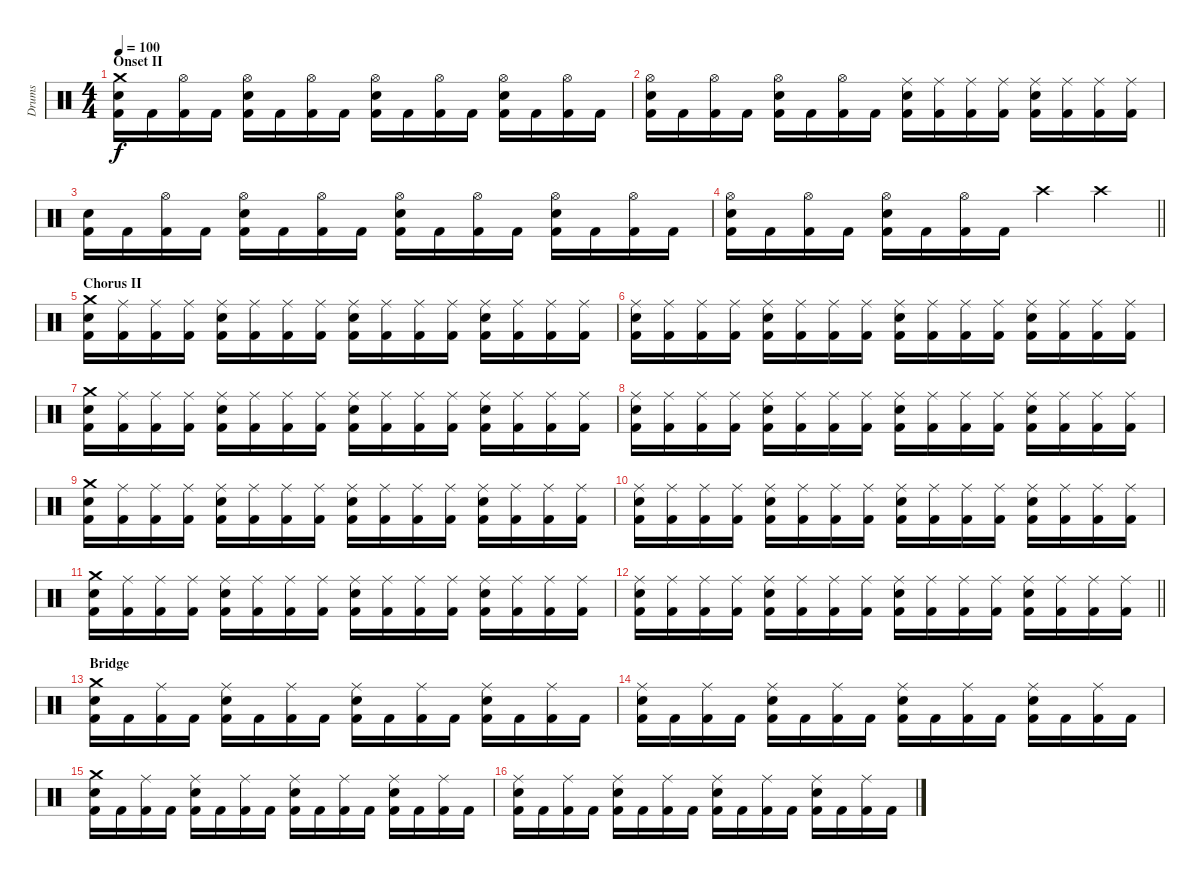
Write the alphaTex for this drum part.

\track ("Drums" "Drums") {instrument percussion}
\staff {score}
\articulation defaults
\ts (4 4)
\section ("" "Onset II")
\tempo 100
\clef neutral
\ks c
("Crash medium (hit)" "Snare (hit) 2" "Kick (hit) 2").16{dy f} "Kick (hit) 2".16 ("Hi-Hat (open)" "Kick (hit) 2").16 "Kick (hit) 2".16 ("Hi-Hat (open)" "Snare (hit) 2" "Kick (hit) 2").16 "Kick (hit) 2".16 ("Hi-Hat (open)" "Kick (hit) 2").16 "Kick (hit) 2".16 ("Hi-Hat (open)" "Snare (hit) 2" "Kick (hit) 2").16 "Kick (hit) 2".16 ("Hi-Hat (open)" "Kick (hit) 2").16 "Kick (hit) 2".16 ("Hi-Hat (open)" "Snare (hit) 2" "Kick (hit) 2").16 "Kick (hit) 2".16 ("Hi-Hat (open)" "Kick (hit) 2").16 "Kick (hit) 2".16 |
("Hi-Hat (open)" "Snare (hit) 2" "Kick (hit) 2").16 "Kick (hit) 2".16 ("Hi-Hat (open)" "Kick (hit) 2").16 "Kick (hit) 2".16 ("Hi-Hat (open)" "Snare (hit) 2" "Kick (hit) 2").16 "Kick (hit) 2".16 ("Hi-Hat (open)" "Kick (hit) 2").16 "Kick (hit) 2".16 ("Ride (middle)" "Snare (hit) 2" "Kick (hit) 2").16 ("Ride (middle)" "Kick (hit) 2").16 ("Ride (middle)" "Kick (hit) 2").16 ("Ride (middle)" "Kick (hit) 2").16 ("Ride (middle)" "Snare (hit) 2" "Kick (hit) 2").16 ("Ride (middle)" "Kick (hit) 2").16 ("Ride (middle)" "Kick (hit) 2").16 ("Ride (middle)" "Kick (hit) 2").16 |
("Snare (hit) 2" "Kick (hit) 2").16 "Kick (hit) 2".16 ("Hi-Hat (open)" "Kick (hit) 2").16 "Kick (hit) 2".16 ("Hi-Hat (open)" "Snare (hit) 2" "Kick (hit) 2").16 "Kick (hit) 2".16 ("Hi-Hat (open)" "Kick (hit) 2").16 "Kick (hit) 2".16 ("Hi-Hat (open)" "Snare (hit) 2" "Kick (hit) 2").16 "Kick (hit) 2".16 ("Hi-Hat (open)" "Kick (hit) 2").16 "Kick (hit) 2".16 ("Hi-Hat (open)" "Snare (hit) 2" "Kick (hit) 2").16 "Kick (hit) 2".16 ("Hi-Hat (open)" "Kick (hit) 2").16 "Kick (hit) 2".16 |
\barLineRight lightlight
("Hi-Hat (open)" "Snare (hit) 2" "Kick (hit) 2").16 "Kick (hit) 2".16 ("Hi-Hat (open)" "Kick (hit) 2").16 "Kick (hit) 2".16 ("Hi-Hat (open)" "Snare (hit) 2" "Kick (hit) 2").16 "Kick (hit) 2".16 ("Hi-Hat (open)" "Kick (hit) 2").16 "Kick (hit) 2".16 "Crash high (hit)".4 "Crash high (hit)".4 |
\section ("" "Chorus II")
("Crash medium (hit)" "Snare (hit) 2" "Kick (hit) 2").16 ("Ride (middle)" "Kick (hit) 2").16 ("Ride (middle)" "Kick (hit) 2").16 ("Ride (middle)" "Kick (hit) 2").16 ("Ride (middle)" "Snare (hit) 2" "Kick (hit) 2").16 ("Ride (middle)" "Kick (hit) 2").16 ("Ride (middle)" "Kick (hit) 2").16 ("Ride (middle)" "Kick (hit) 2").16 ("Ride (middle)" "Snare (hit) 2" "Kick (hit) 2").16 ("Ride (middle)" "Kick (hit) 2").16 ("Ride (middle)" "Kick (hit) 2").16 ("Ride (middle)" "Kick (hit) 2").16 ("Ride (middle)" "Snare (hit) 2" "Kick (hit) 2").16 ("Ride (middle)" "Kick (hit) 2").16 ("Ride (middle)" "Kick (hit) 2").16 ("Ride (middle)" "Kick (hit) 2").16 |
("Ride (middle)" "Snare (hit) 2" "Kick (hit) 2").16 ("Ride (middle)" "Kick (hit) 2").16 ("Ride (middle)" "Kick (hit) 2").16 ("Ride (middle)" "Kick (hit) 2").16 ("Ride (middle)" "Snare (hit) 2" "Kick (hit) 2").16 ("Ride (middle)" "Kick (hit) 2").16 ("Ride (middle)" "Kick (hit) 2").16 ("Ride (middle)" "Kick (hit) 2").16 ("Ride (middle)" "Snare (hit) 2" "Kick (hit) 2").16 ("Ride (middle)" "Kick (hit) 2").16 ("Ride (middle)" "Kick (hit) 2").16 ("Ride (middle)" "Kick (hit) 2").16 ("Ride (middle)" "Snare (hit) 2" "Kick (hit) 2").16 ("Ride (middle)" "Kick (hit) 2").16 ("Ride (middle)" "Kick (hit) 2").16 ("Ride (middle)" "Kick (hit) 2").16 |
("Crash medium (hit)" "Snare (hit) 2" "Kick (hit) 2").16 ("Ride (middle)" "Kick (hit) 2").16 ("Ride (middle)" "Kick (hit) 2").16 ("Ride (middle)" "Kick (hit) 2").16 ("Ride (middle)" "Snare (hit) 2" "Kick (hit) 2").16 ("Ride (middle)" "Kick (hit) 2").16 ("Ride (middle)" "Kick (hit) 2").16 ("Ride (middle)" "Kick (hit) 2").16 ("Ride (middle)" "Snare (hit) 2" "Kick (hit) 2").16 ("Ride (middle)" "Kick (hit) 2").16 ("Ride (middle)" "Kick (hit) 2").16 ("Ride (middle)" "Kick (hit) 2").16 ("Ride (middle)" "Snare (hit) 2" "Kick (hit) 2").16 ("Ride (middle)" "Kick (hit) 2").16 ("Ride (middle)" "Kick (hit) 2").16 ("Ride (middle)" "Kick (hit) 2").16 |
("Ride (middle)" "Snare (hit) 2" "Kick (hit) 2").16 ("Ride (middle)" "Kick (hit) 2").16 ("Ride (middle)" "Kick (hit) 2").16 ("Ride (middle)" "Kick (hit) 2").16 ("Ride (middle)" "Snare (hit) 2" "Kick (hit) 2").16 ("Ride (middle)" "Kick (hit) 2").16 ("Ride (middle)" "Kick (hit) 2").16 ("Ride (middle)" "Kick (hit) 2").16 ("Ride (middle)" "Snare (hit) 2" "Kick (hit) 2").16 ("Ride (middle)" "Kick (hit) 2").16 ("Ride (middle)" "Kick (hit) 2").16 ("Ride (middle)" "Kick (hit) 2").16 ("Ride (middle)" "Snare (hit) 2" "Kick (hit) 2").16 ("Ride (middle)" "Kick (hit) 2").16 ("Ride (middle)" "Kick (hit) 2").16 ("Ride (middle)" "Kick (hit) 2").16 |
("Crash medium (hit)" "Snare (hit) 2" "Kick (hit) 2").16 ("Ride (middle)" "Kick (hit) 2").16 ("Ride (middle)" "Kick (hit) 2").16 ("Ride (middle)" "Kick (hit) 2").16 ("Ride (middle)" "Snare (hit) 2" "Kick (hit) 2").16 ("Ride (middle)" "Kick (hit) 2").16 ("Ride (middle)" "Kick (hit) 2").16 ("Ride (middle)" "Kick (hit) 2").16 ("Ride (middle)" "Snare (hit) 2" "Kick (hit) 2").16 ("Ride (middle)" "Kick (hit) 2").16 ("Ride (middle)" "Kick (hit) 2").16 ("Ride (middle)" "Kick (hit) 2").16 ("Ride (middle)" "Snare (hit) 2" "Kick (hit) 2").16 ("Ride (middle)" "Kick (hit) 2").16 ("Ride (middle)" "Kick (hit) 2").16 ("Ride (middle)" "Kick (hit) 2").16 |
("Ride (middle)" "Snare (hit) 2" "Kick (hit) 2").16 ("Ride (middle)" "Kick (hit) 2").16 ("Ride (middle)" "Kick (hit) 2").16 ("Ride (middle)" "Kick (hit) 2").16 ("Ride (middle)" "Snare (hit) 2" "Kick (hit) 2").16 ("Ride (middle)" "Kick (hit) 2").16 ("Ride (middle)" "Kick (hit) 2").16 ("Ride (middle)" "Kick (hit) 2").16 ("Ride (middle)" "Snare (hit) 2" "Kick (hit) 2").16 ("Ride (middle)" "Kick (hit) 2").16 ("Ride (middle)" "Kick (hit) 2").16 ("Ride (middle)" "Kick (hit) 2").16 ("Ride (middle)" "Snare (hit) 2" "Kick (hit) 2").16 ("Ride (middle)" "Kick (hit) 2").16 ("Ride (middle)" "Kick (hit) 2").16 ("Ride (middle)" "Kick (hit) 2").16 |
("Crash medium (hit)" "Snare (hit) 2" "Kick (hit) 2").16 ("Ride (middle)" "Kick (hit) 2").16 ("Ride (middle)" "Kick (hit) 2").16 ("Ride (middle)" "Kick (hit) 2").16 ("Ride (middle)" "Snare (hit) 2" "Kick (hit) 2").16 ("Ride (middle)" "Kick (hit) 2").16 ("Ride (middle)" "Kick (hit) 2").16 ("Ride (middle)" "Kick (hit) 2").16 ("Ride (middle)" "Snare (hit) 2" "Kick (hit) 2").16 ("Ride (middle)" "Kick (hit) 2").16 ("Ride (middle)" "Kick (hit) 2").16 ("Ride (middle)" "Kick (hit) 2").16 ("Ride (middle)" "Snare (hit) 2" "Kick (hit) 2").16 ("Ride (middle)" "Kick (hit) 2").16 ("Ride (middle)" "Kick (hit) 2").16 ("Ride (middle)" "Kick (hit) 2").16 |
\barLineRight lightlight
("Ride (middle)" "Snare (hit) 2" "Kick (hit) 2").16 ("Ride (middle)" "Kick (hit) 2").16 ("Ride (middle)" "Kick (hit) 2").16 ("Ride (middle)" "Kick (hit) 2").16 ("Ride (middle)" "Snare (hit) 2" "Kick (hit) 2").16 ("Ride (middle)" "Kick (hit) 2").16 ("Ride (middle)" "Kick (hit) 2").16 ("Ride (middle)" "Kick (hit) 2").16 ("Ride (middle)" "Snare (hit) 2" "Kick (hit) 2").16 ("Ride (middle)" "Kick (hit) 2").16 ("Ride (middle)" "Kick (hit) 2").16 ("Ride (middle)" "Kick (hit) 2").16 ("Ride (middle)" "Snare (hit) 2" "Kick (hit) 2").16 ("Ride (middle)" "Kick (hit) 2").16 ("Ride (middle)" "Kick (hit) 2").16 ("Ride (middle)" "Kick (hit) 2").16 |
\section ("" "Bridge")
("Crash medium (hit)" "Snare (hit) 2" "Kick (hit) 2").16 "Kick (hit) 2".16 ("Ride (middle)" "Kick (hit) 2").16 "Kick (hit) 2".16 ("Ride (middle)" "Snare (hit) 2" "Kick (hit) 2").16 "Kick (hit) 2".16 ("Ride (middle)" "Kick (hit) 2").16 "Kick (hit) 2".16 ("Ride (middle)" "Snare (hit) 2" "Kick (hit) 2").16 "Kick (hit) 2".16 ("Ride (middle)" "Kick (hit) 2").16 "Kick (hit) 2".16 ("Ride (middle)" "Snare (hit) 2" "Kick (hit) 2").16 "Kick (hit) 2".16 ("Ride (middle)" "Kick (hit) 2").16 "Kick (hit) 2".16 |
("Ride (middle)" "Snare (hit) 2" "Kick (hit) 2").16 "Kick (hit) 2".16 ("Ride (middle)" "Kick (hit) 2").16 "Kick (hit) 2".16 ("Ride (middle)" "Snare (hit) 2" "Kick (hit) 2").16 "Kick (hit) 2".16 ("Ride (middle)" "Kick (hit) 2").16 "Kick (hit) 2".16 ("Ride (middle)" "Snare (hit) 2" "Kick (hit) 2").16 "Kick (hit) 2".16 ("Ride (middle)" "Kick (hit) 2").16 "Kick (hit) 2".16 ("Ride (middle)" "Snare (hit) 2" "Kick (hit) 2").16 "Kick (hit) 2".16 ("Ride (middle)" "Kick (hit) 2").16 "Kick (hit) 2".16 |
("Crash medium (hit)" "Snare (hit) 2" "Kick (hit) 2").16 "Kick (hit) 2".16 ("Ride (middle)" "Kick (hit) 2").16 "Kick (hit) 2".16 ("Ride (middle)" "Snare (hit) 2" "Kick (hit) 2").16 "Kick (hit) 2".16 ("Ride (middle)" "Kick (hit) 2").16 "Kick (hit) 2".16 ("Ride (middle)" "Snare (hit) 2" "Kick (hit) 2").16 "Kick (hit) 2".16 ("Ride (middle)" "Kick (hit) 2").16 "Kick (hit) 2".16 ("Ride (middle)" "Snare (hit) 2" "Kick (hit) 2").16 "Kick (hit) 2".16 ("Ride (middle)" "Kick (hit) 2").16 "Kick (hit) 2".16 |
("Ride (middle)" "Snare (hit) 2" "Kick (hit) 2").16 "Kick (hit) 2".16 ("Ride (middle)" "Kick (hit) 2").16 "Kick (hit) 2".16 ("Ride (middle)" "Snare (hit) 2" "Kick (hit) 2").16 "Kick (hit) 2".16 ("Ride (middle)" "Kick (hit) 2").16 "Kick (hit) 2".16 ("Ride (middle)" "Snare (hit) 2" "Kick (hit) 2").16 "Kick (hit) 2".16 ("Ride (middle)" "Kick (hit) 2").16 "Kick (hit) 2".16 ("Ride (middle)" "Snare (hit) 2" "Kick (hit) 2").16 "Kick (hit) 2".16 ("Ride (middle)" "Kick (hit) 2").16 "Kick (hit) 2".16
